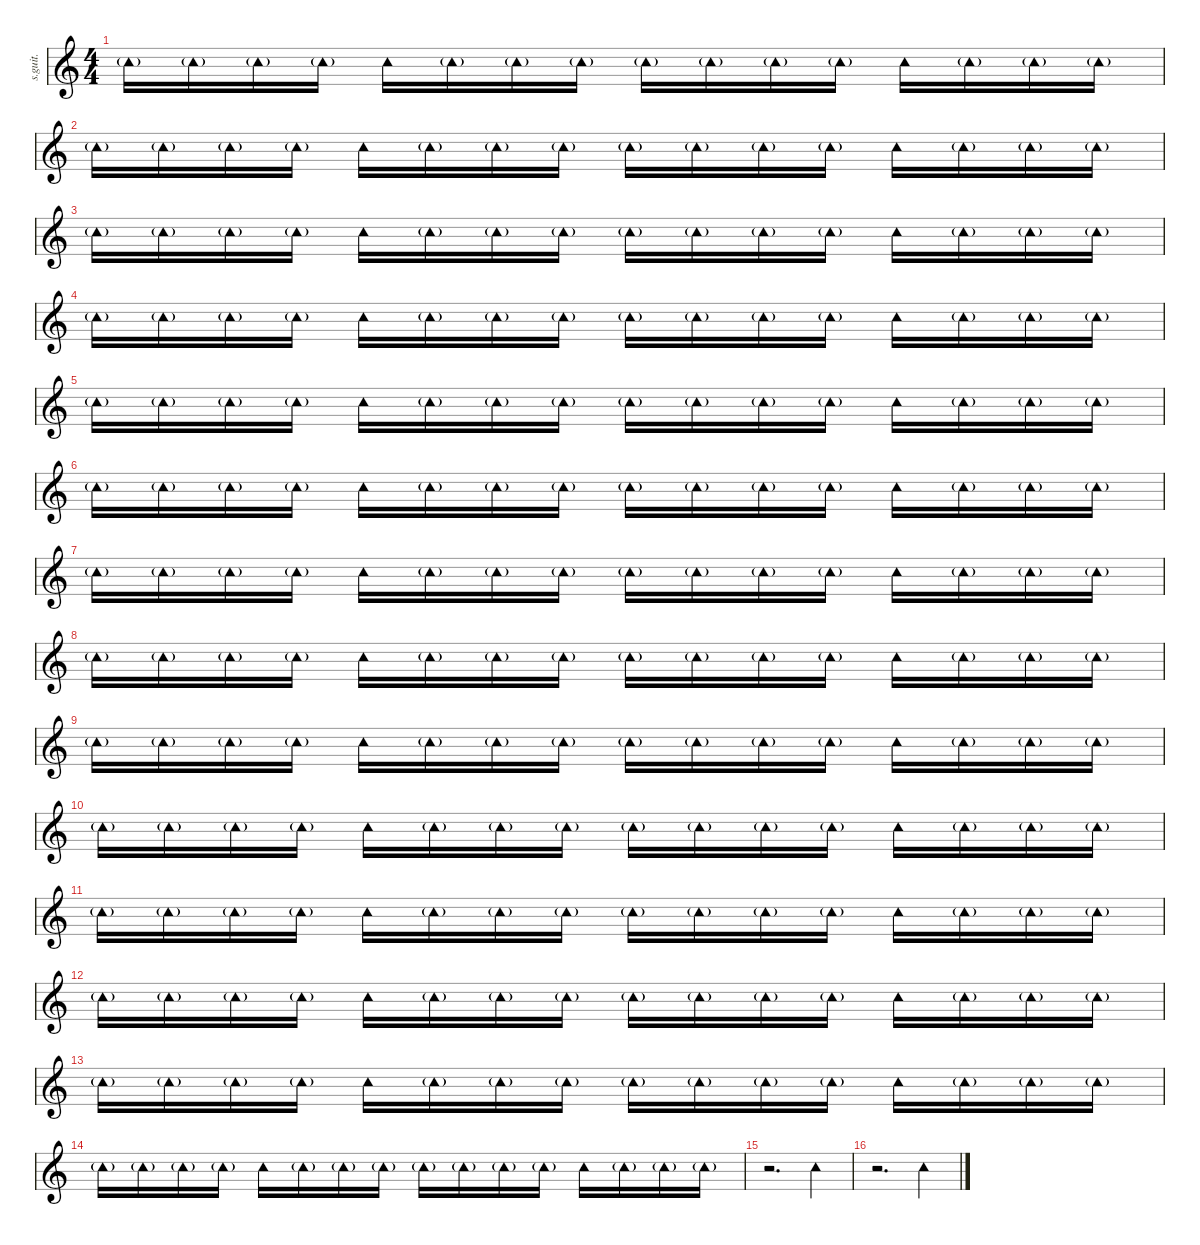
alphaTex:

\defaultSystemsLayout 4
\hideDynamics
\bracketExtendMode nobrackets
\track ("Tambourine" "s.guit.") {instrument percussion}
\staff {score}
\articulation defaults
\ts (4 4)
\tempo (136 hide)
\clef g2
\ks c "Tambourine (hit)"{g}.16{dy pp} "Tambourine (hit)"{g}.16 "Tambourine (hit)"{g}.16 "Tambourine (hit)"{g}.16 "Tambourine (hit)".16{dy mp} "Tambourine (hit)"{g}.16{dy pp} "Tambourine (hit)"{g}.16 "Tambourine (hit)"{g}.16 "Tambourine (hit)"{g}.16 "Tambourine (hit)"{g}.16 "Tambourine (hit)"{g}.16 "Tambourine (hit)"{g}.16 "Tambourine (hit)".16{dy mp} "Tambourine (hit)"{g}.16{dy pp} "Tambourine (hit)"{g}.16 "Tambourine (hit)"{g}.16
|
"Tambourine (hit)"{g}.16 "Tambourine (hit)"{g}.16 "Tambourine (hit)"{g}.16 "Tambourine (hit)"{g}.16 "Tambourine (hit)".16{dy mp} "Tambourine (hit)"{g}.16{dy pp} "Tambourine (hit)"{g}.16 "Tambourine (hit)"{g}.16 "Tambourine (hit)"{g}.16 "Tambourine (hit)"{g}.16 "Tambourine (hit)"{g}.16 "Tambourine (hit)"{g}.16 "Tambourine (hit)".16{dy mp} "Tambourine (hit)"{g}.16{dy pp} "Tambourine (hit)"{g}.16 "Tambourine (hit)"{g}.16 |
"Tambourine (hit)"{g}.16 "Tambourine (hit)"{g}.16 "Tambourine (hit)"{g}.16 "Tambourine (hit)"{g}.16 "Tambourine (hit)".16{dy mp} "Tambourine (hit)"{g}.16{dy pp} "Tambourine (hit)"{g}.16 "Tambourine (hit)"{g}.16 "Tambourine (hit)"{g}.16 "Tambourine (hit)"{g}.16 "Tambourine (hit)"{g}.16 "Tambourine (hit)"{g}.16 "Tambourine (hit)".16{dy mp} "Tambourine (hit)"{g}.16{dy pp} "Tambourine (hit)"{g}.16 "Tambourine (hit)"{g}.16 |
"Tambourine (hit)"{g}.16 "Tambourine (hit)"{g}.16 "Tambourine (hit)"{g}.16 "Tambourine (hit)"{g}.16 "Tambourine (hit)".16{dy mp} "Tambourine (hit)"{g}.16{dy pp} "Tambourine (hit)"{g}.16 "Tambourine (hit)"{g}.16 "Tambourine (hit)"{g}.16 "Tambourine (hit)"{g}.16 "Tambourine (hit)"{g}.16 "Tambourine (hit)"{g}.16 "Tambourine (hit)".16{dy mp} "Tambourine (hit)"{g}.16{dy pp} "Tambourine (hit)"{g}.16 "Tambourine (hit)"{g}.16 |
"Tambourine (hit)"{g}.16 "Tambourine (hit)"{g}.16 "Tambourine (hit)"{g}.16 "Tambourine (hit)"{g}.16 "Tambourine (hit)".16{dy mp} "Tambourine (hit)"{g}.16{dy pp} "Tambourine (hit)"{g}.16 "Tambourine (hit)"{g}.16 "Tambourine (hit)"{g}.16 "Tambourine (hit)"{g}.16 "Tambourine (hit)"{g}.16 "Tambourine (hit)"{g}.16 "Tambourine (hit)".16{dy mp} "Tambourine (hit)"{g}.16{dy pp} "Tambourine (hit)"{g}.16 "Tambourine (hit)"{g}.16 |
"Tambourine (hit)"{g}.16 "Tambourine (hit)"{g}.16 "Tambourine (hit)"{g}.16 "Tambourine (hit)"{g}.16 "Tambourine (hit)".16{dy mp} "Tambourine (hit)"{g}.16{dy pp} "Tambourine (hit)"{g}.16 "Tambourine (hit)"{g}.16 "Tambourine (hit)"{g}.16 "Tambourine (hit)"{g}.16 "Tambourine (hit)"{g}.16 "Tambourine (hit)"{g}.16 "Tambourine (hit)".16{dy mp} "Tambourine (hit)"{g}.16{dy pp} "Tambourine (hit)"{g}.16 "Tambourine (hit)"{g}.16 |
"Tambourine (hit)"{g}.16 "Tambourine (hit)"{g}.16 "Tambourine (hit)"{g}.16 "Tambourine (hit)"{g}.16 "Tambourine (hit)".16{dy mp} "Tambourine (hit)"{g}.16{dy pp} "Tambourine (hit)"{g}.16 "Tambourine (hit)"{g}.16 "Tambourine (hit)"{g}.16 "Tambourine (hit)"{g}.16 "Tambourine (hit)"{g}.16 "Tambourine (hit)"{g}.16 "Tambourine (hit)".16{dy mp} "Tambourine (hit)"{g}.16{dy pp} "Tambourine (hit)"{g}.16 "Tambourine (hit)"{g}.16 |
"Tambourine (hit)"{g}.16 "Tambourine (hit)"{g}.16 "Tambourine (hit)"{g}.16 "Tambourine (hit)"{g}.16 "Tambourine (hit)".16{dy mp} "Tambourine (hit)"{g}.16{dy pp} "Tambourine (hit)"{g}.16 "Tambourine (hit)"{g}.16 "Tambourine (hit)"{g}.16 "Tambourine (hit)"{g}.16 "Tambourine (hit)"{g}.16 "Tambourine (hit)"{g}.16 "Tambourine (hit)".16{dy mp} "Tambourine (hit)"{g}.16{dy pp} "Tambourine (hit)"{g}.16 "Tambourine (hit)"{g}.16 |
"Tambourine (hit)"{g}.16 "Tambourine (hit)"{g}.16 "Tambourine (hit)"{g}.16 "Tambourine (hit)"{g}.16 "Tambourine (hit)".16{dy mp} "Tambourine (hit)"{g}.16{dy pp} "Tambourine (hit)"{g}.16 "Tambourine (hit)"{g}.16 "Tambourine (hit)"{g}.16 "Tambourine (hit)"{g}.16 "Tambourine (hit)"{g}.16 "Tambourine (hit)"{g}.16 "Tambourine (hit)".16{dy mp} "Tambourine (hit)"{g}.16{dy pp} "Tambourine (hit)"{g}.16 "Tambourine (hit)"{g}.16 |
"Tambourine (hit)"{g}.16 "Tambourine (hit)"{g}.16 "Tambourine (hit)"{g}.16 "Tambourine (hit)"{g}.16 "Tambourine (hit)".16{dy mp} "Tambourine (hit)"{g}.16{dy pp} "Tambourine (hit)"{g}.16 "Tambourine (hit)"{g}.16 "Tambourine (hit)"{g}.16 "Tambourine (hit)"{g}.16 "Tambourine (hit)"{g}.16 "Tambourine (hit)"{g}.16 "Tambourine (hit)".16{dy mp} "Tambourine (hit)"{g}.16{dy pp} "Tambourine (hit)"{g}.16 "Tambourine (hit)"{g}.16 |
"Tambourine (hit)"{g}.16 "Tambourine (hit)"{g}.16 "Tambourine (hit)"{g}.16 "Tambourine (hit)"{g}.16 "Tambourine (hit)".16{dy mp} "Tambourine (hit)"{g}.16{dy pp} "Tambourine (hit)"{g}.16 "Tambourine (hit)"{g}.16 "Tambourine (hit)"{g}.16 "Tambourine (hit)"{g}.16 "Tambourine (hit)"{g}.16 "Tambourine (hit)"{g}.16 "Tambourine (hit)".16{dy mp} "Tambourine (hit)"{g}.16{dy pp} "Tambourine (hit)"{g}.16 "Tambourine (hit)"{g}.16 |
"Tambourine (hit)"{g}.16 "Tambourine (hit)"{g}.16 "Tambourine (hit)"{g}.16 "Tambourine (hit)"{g}.16 "Tambourine (hit)".16{dy mp} "Tambourine (hit)"{g}.16{dy pp} "Tambourine (hit)"{g}.16 "Tambourine (hit)"{g}.16 "Tambourine (hit)"{g}.16 "Tambourine (hit)"{g}.16 "Tambourine (hit)"{g}.16 "Tambourine (hit)"{g}.16 "Tambourine (hit)".16{dy mp} "Tambourine (hit)"{g}.16{dy pp} "Tambourine (hit)"{g}.16 "Tambourine (hit)"{g}.16 |
"Tambourine (hit)"{g}.16 "Tambourine (hit)"{g}.16 "Tambourine (hit)"{g}.16 "Tambourine (hit)"{g}.16 "Tambourine (hit)".16{dy mp} "Tambourine (hit)"{g}.16{dy pp} "Tambourine (hit)"{g}.16 "Tambourine (hit)"{g}.16 "Tambourine (hit)"{g}.16 "Tambourine (hit)"{g}.16 "Tambourine (hit)"{g}.16 "Tambourine (hit)"{g}.16 "Tambourine (hit)".16{dy mp} "Tambourine (hit)"{g}.16{dy pp} "Tambourine (hit)"{g}.16 "Tambourine (hit)"{g}.16 |
"Tambourine (hit)"{g}.16 "Tambourine (hit)"{g}.16 "Tambourine (hit)"{g}.16 "Tambourine (hit)"{g}.16 "Tambourine (hit)".16{dy mp} "Tambourine (hit)"{g}.16{dy pp} "Tambourine (hit)"{g}.16 "Tambourine (hit)"{g}.16 "Tambourine (hit)"{g}.16 "Tambourine (hit)"{g}.16 "Tambourine (hit)"{g}.16 "Tambourine (hit)"{g}.16 "Tambourine (hit)".16{dy mp} "Tambourine (hit)"{g}.16{dy pp} "Tambourine (hit)"{g}.16 "Tambourine (hit)"{g}.16 |
r.2{d} "Tambourine (hit)".4{dy f} |
r.2{d} "Tambourine (hit)".4
